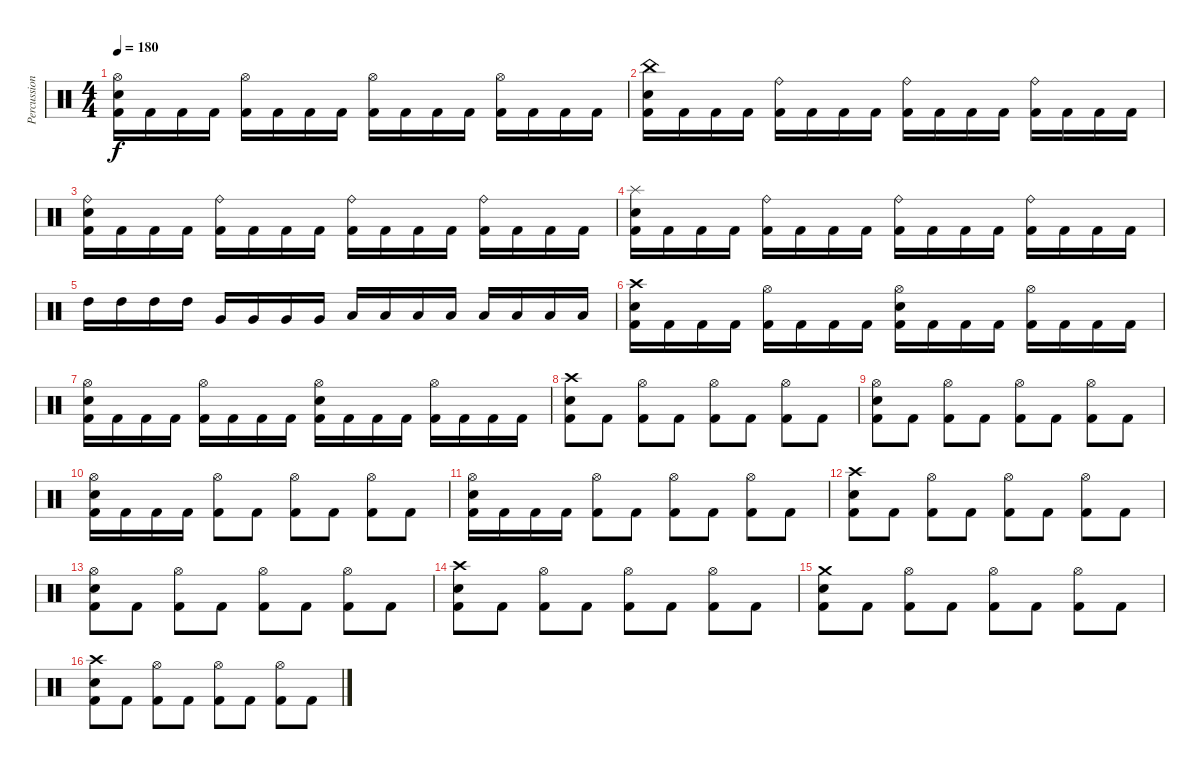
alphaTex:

\track ("Percussion" "Percussion") {instrument percussion}
\staff {score}
\articulation defaults
\ts (4 4)
\tempo 180
\clef neutral
\ks c
("Hi-Hat (open)" "Snare (hit) 2" "Kick (hit) 2").16{dy f} "Kick (hit) 2".16 "Kick (hit) 2".16 "Kick (hit) 2".16 ("Hi-Hat (open)" "Kick (hit) 2").16 "Kick (hit) 2".16 "Kick (hit) 2".16 "Kick (hit) 2".16 ("Hi-Hat (open)" "Kick (hit) 2").16 "Kick (hit) 2".16 "Kick (hit) 2".16 "Kick (hit) 2".16 ("Hi-Hat (open)" "Kick (hit) 2").16 "Kick (hit) 2".16 "Kick (hit) 2".16 "Kick (hit) 2".16 |
("China (hit)" "Snare (hit) 2" "Kick (hit) 2").16 "Kick (hit) 2".16 "Kick (hit) 2".16 "Kick (hit) 2".16 ("Ride (bell)" "Kick (hit) 2").16 "Kick (hit) 2".16 "Kick (hit) 2".16 "Kick (hit) 2".16 ("Ride (bell)" "Kick (hit) 2").16 "Kick (hit) 2".16 "Kick (hit) 2".16 "Kick (hit) 2".16 ("Ride (bell)" "Kick (hit) 2").16 "Kick (hit) 2".16 "Kick (hit) 2".16 "Kick (hit) 2".16 |
("Ride (bell)" "Snare (hit) 2" "Kick (hit) 2").16 "Kick (hit) 2".16 "Kick (hit) 2".16 "Kick (hit) 2".16 ("Ride (bell)" "Kick (hit) 2").16 "Kick (hit) 2".16 "Kick (hit) 2".16 "Kick (hit) 2".16 ("Ride (bell)" "Kick (hit) 2").16 "Kick (hit) 2".16 "Kick (hit) 2".16 "Kick (hit) 2".16 ("Ride (bell)" "Kick (hit) 2").16 "Kick (hit) 2".16 "Kick (hit) 2".16 "Kick (hit) 2".16 |
("Splash (hit)" "Snare (hit) 2" "Kick (hit) 2").16 "Kick (hit) 2".16 "Kick (hit) 2".16 "Kick (hit) 2".16 ("Ride (bell)" "Kick (hit) 2").16 "Kick (hit) 2".16 "Kick (hit) 2".16 "Kick (hit) 2".16 ("Ride (bell)" "Kick (hit) 2").16 "Kick (hit) 2".16 "Kick (hit) 2".16 "Kick (hit) 2".16 ("Ride (bell)" "Kick (hit) 2").16 "Kick (hit) 2".16 "Kick (hit) 2".16 "Kick (hit) 2".16 |
"High Tom (hit)".16 "High Tom (hit)".16 "High Tom (hit)".16 "High Tom (hit)".16 "Very Low Tom (hit)".16 "Very Low Tom (hit)".16 "Very Low Tom (hit)".16 "Very Low Tom (hit)".16 "Low Tom (hit)".16 "Low Tom (hit)".16 "Low Tom (hit)".16 "Low Tom (hit)".16 "Low Floor Tom (hit)".16 "Low Floor Tom (hit)".16 "Low Floor Tom (hit)".16 "Low Floor Tom (hit)".16 |
("Crash high (hit)" "Snare (hit) 2" "Kick (hit) 2").16 "Kick (hit) 2".16 "Kick (hit) 2".16 "Kick (hit) 2".16 ("Hi-Hat (open)" "Kick (hit) 2").16 "Kick (hit) 2".16 "Kick (hit) 2".16 "Kick (hit) 2".16 ("Hi-Hat (open)" "Snare (hit) 2" "Kick (hit) 2").16 "Kick (hit) 2".16 "Kick (hit) 2".16 "Kick (hit) 2".16 ("Hi-Hat (open)" "Kick (hit) 2").16 "Kick (hit) 2".16 "Kick (hit) 2".16 "Kick (hit) 2".16 |
("Hi-Hat (open)" "Snare (hit) 2" "Kick (hit) 2").16 "Kick (hit) 2".16 "Kick (hit) 2".16 "Kick (hit) 2".16 ("Hi-Hat (open)" "Kick (hit) 2").16 "Kick (hit) 2".16 "Kick (hit) 2".16 "Kick (hit) 2".16 ("Hi-Hat (open)" "Snare (hit) 2" "Kick (hit) 2").16 "Kick (hit) 2".16 "Kick (hit) 2".16 "Kick (hit) 2".16 ("Hi-Hat (open)" "Kick (hit) 2").16 "Kick (hit) 2".16 "Kick (hit) 2".16 "Kick (hit) 2".16 |
("Crash high (hit)" "Snare (hit) 2" "Kick (hit) 2").8 "Kick (hit) 2".8 ("Hi-Hat (open)" "Kick (hit) 2").8 "Kick (hit) 2".8 ("Hi-Hat (open)" "Kick (hit) 2").8 "Kick (hit) 2".8 ("Hi-Hat (open)" "Kick (hit) 2").8 "Kick (hit) 2".8 |
("Hi-Hat (open)" "Snare (hit) 2" "Kick (hit) 2").8 "Kick (hit) 2".8 ("Hi-Hat (open)" "Kick (hit) 2").8 "Kick (hit) 2".8 ("Hi-Hat (open)" "Kick (hit) 2").8 "Kick (hit) 2".8 ("Hi-Hat (open)" "Kick (hit) 2").8 "Kick (hit) 2".8 |
("Hi-Hat (open)" "Snare (hit) 2" "Kick (hit) 2").16 "Kick (hit) 2".16 "Kick (hit) 2".16 "Kick (hit) 2".16 ("Hi-Hat (open)" "Kick (hit) 2").8 "Kick (hit) 2".8 ("Hi-Hat (open)" "Kick (hit) 2").8 "Kick (hit) 2".8 ("Hi-Hat (open)" "Kick (hit) 2").8 "Kick (hit) 2".8 |
("Hi-Hat (open)" "Snare (hit) 2" "Kick (hit) 2").16 "Kick (hit) 2".16 "Kick (hit) 2".16 "Kick (hit) 2".16 ("Hi-Hat (open)" "Kick (hit) 2").8 "Kick (hit) 2".8 ("Hi-Hat (open)" "Kick (hit) 2").8 "Kick (hit) 2".8 ("Hi-Hat (open)" "Kick (hit) 2").8 "Kick (hit) 2".8 |
("Crash high (hit)" "Snare (hit) 2" "Kick (hit) 2").8 "Kick (hit) 2".8 ("Hi-Hat (open)" "Kick (hit) 2").8 "Kick (hit) 2".8 ("Hi-Hat (open)" "Kick (hit) 2").8 "Kick (hit) 2".8 ("Hi-Hat (open)" "Kick (hit) 2").8 "Kick (hit) 2".8 |
("Hi-Hat (open)" "Snare (hit) 2" "Kick (hit) 2").8 "Kick (hit) 2".8 ("Hi-Hat (open)" "Kick (hit) 2").8 "Kick (hit) 2".8 ("Hi-Hat (open)" "Kick (hit) 2").8 "Kick (hit) 2".8 ("Hi-Hat (open)" "Kick (hit) 2").8 "Kick (hit) 2".8 |
("Crash high (hit)" "Snare (hit) 2" "Kick (hit) 2").8 "Kick (hit) 2".8 ("Hi-Hat (open)" "Kick (hit) 2").8 "Kick (hit) 2".8 ("Hi-Hat (open)" "Kick (hit) 2").8 "Kick (hit) 2".8 ("Hi-Hat (open)" "Kick (hit) 2").8 "Kick (hit) 2".8 |
("Crash medium (hit)" "Snare (hit) 2" "Kick (hit) 2").8 "Kick (hit) 2".8 ("Hi-Hat (open)" "Kick (hit) 2").8 "Kick (hit) 2".8 ("Hi-Hat (open)" "Kick (hit) 2").8 "Kick (hit) 2".8 ("Hi-Hat (open)" "Kick (hit) 2").8 "Kick (hit) 2".8 |
("Crash high (hit)" "Snare (hit) 2" "Kick (hit) 2").8 "Kick (hit) 2".8 ("Hi-Hat (open)" "Kick (hit) 2").8 "Kick (hit) 2".8 ("Hi-Hat (open)" "Kick (hit) 2").8 "Kick (hit) 2".8 ("Hi-Hat (open)" "Kick (hit) 2").8 "Kick (hit) 2".8
